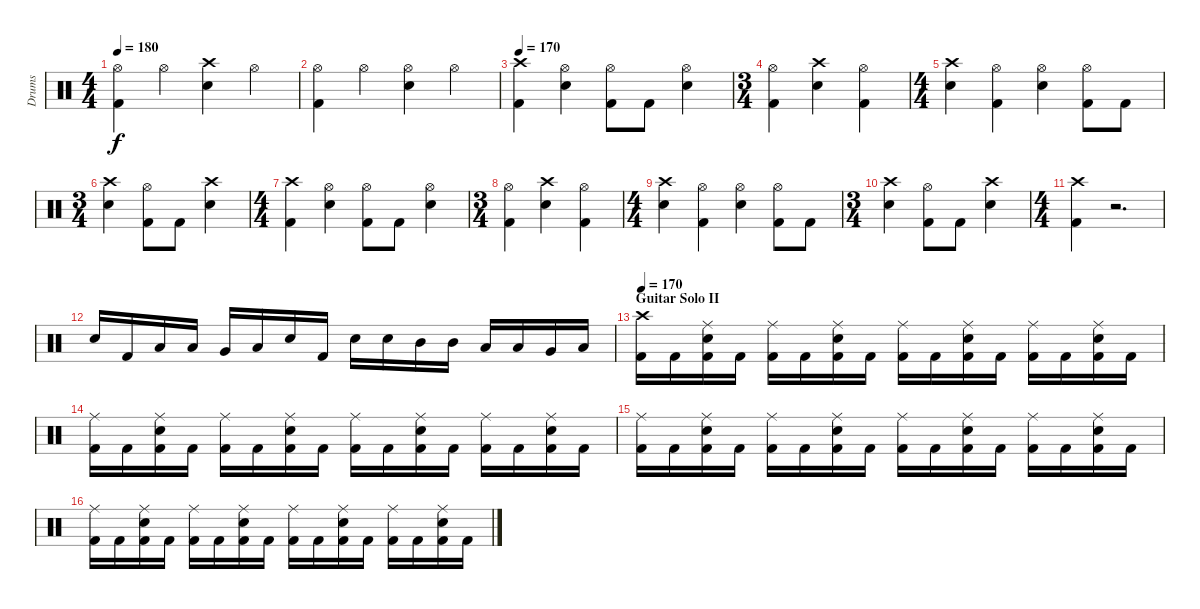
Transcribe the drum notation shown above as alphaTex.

\track ("Drums" "Drums") {instrument percussion}
\staff {score}
\articulation defaults
\ts (4 4)
\tempo 180
\clef neutral
\ks c
("Hi-Hat (open)" "Kick (hit) 2").4{dy f} "Hi-Hat (open)".4 ("Crash high (hit)" "Electric Snare (hit)").4 "Hi-Hat (open)".4 |
("Hi-Hat (open)" "Kick (hit) 2").4 "Hi-Hat (open)".4 ("Hi-Hat (open)" "Electric Snare (hit)").4 "Hi-Hat (open)".4 |
\tempo 170
("Crash high (hit)" "Kick (hit) 2").4 ("Hi-Hat (open)" "Electric Snare (hit)").4 ("Hi-Hat (open)" "Kick (hit) 2").8 "Kick (hit) 2".8 ("Hi-Hat (open)" "Electric Snare (hit)").4 |
\ts (3 4)
("Hi-Hat (open)" "Kick (hit) 2").4 ("Crash high (hit)" "Electric Snare (hit)").4 ("Hi-Hat (open)" "Kick (hit) 2").4 |
\ts (4 4)
("Crash high (hit)" "Electric Snare (hit)").4 ("Hi-Hat (open)" "Kick (hit) 2").4 ("Hi-Hat (open)" "Electric Snare (hit)").4 ("Hi-Hat (open)" "Kick (hit) 2").8 "Kick (hit) 2".8 |
\ts (3 4)
("Crash high (hit)" "Electric Snare (hit)").4 ("Hi-Hat (open)" "Kick (hit) 2").8 "Kick (hit) 2".8 ("Crash high (hit)" "Electric Snare (hit)").4 |
\ts (4 4)
("Crash high (hit)" "Kick (hit) 2").4 ("Hi-Hat (open)" "Electric Snare (hit)").4 ("Hi-Hat (open)" "Kick (hit) 2").8 "Kick (hit) 2".8 ("Hi-Hat (open)" "Electric Snare (hit)").4 |
\ts (3 4)
("Hi-Hat (open)" "Kick (hit) 2").4 ("Crash high (hit)" "Electric Snare (hit)").4 ("Hi-Hat (open)" "Kick (hit) 2").4 |
\ts (4 4)
("Crash high (hit)" "Electric Snare (hit)").4 ("Hi-Hat (open)" "Kick (hit) 2").4 ("Hi-Hat (open)" "Electric Snare (hit)").4 ("Hi-Hat (open)" "Kick (hit) 2").8 "Kick (hit) 2".8 |
\ts (3 4)
("Crash high (hit)" "Electric Snare (hit)").4 ("Hi-Hat (open)" "Kick (hit) 2").8 "Kick (hit) 2".8 ("Crash high (hit)" "Electric Snare (hit)").4 |
\ts (4 4)
("Crash high (hit)" "Kick (hit) 2").4 r.2{d} |
"Electric Snare (hit)".16 "Kick (hit) 2".16 "Low Tom (hit)".16 "Low Tom (hit)".16 "Very Low Tom (hit)".16 "Low Floor Tom (hit)".16 "Electric Snare (hit)".16 "Kick (hit) 2".16 "Electric Snare (hit)".16 "Electric Snare (hit)".16 "Mid Tom (hit)".16 "Mid Tom (hit)".16 "Low Tom (hit)".16 "Low Tom (hit)".16 "Very Low Tom (hit)".16 "Low Floor Tom (hit)".16 |
\section ("" "Guitar Solo II")
\tempo 170
("Crash high (hit)" "Kick (hit) 2").16 "Kick (hit) 2".16 ("Ride (middle)" "Electric Snare (hit)" "Kick (hit) 2").16 "Kick (hit) 2".16 ("Ride (middle)" "Kick (hit) 2").16 "Kick (hit) 2".16 ("Ride (middle)" "Electric Snare (hit)" "Kick (hit) 2").16 "Kick (hit) 2".16 ("Ride (middle)" "Kick (hit) 2").16 "Kick (hit) 2".16 ("Ride (middle)" "Electric Snare (hit)" "Kick (hit) 2").16 "Kick (hit) 2".16 ("Ride (middle)" "Kick (hit) 2").16 "Kick (hit) 2".16 ("Ride (middle)" "Electric Snare (hit)" "Kick (hit) 2").16 "Kick (hit) 2".16 |
("Ride (middle)" "Kick (hit) 2").16 "Kick (hit) 2".16 ("Ride (middle)" "Electric Snare (hit)" "Kick (hit) 2").16 "Kick (hit) 2".16 ("Ride (middle)" "Kick (hit) 2").16 "Kick (hit) 2".16 ("Ride (middle)" "Electric Snare (hit)" "Kick (hit) 2").16 "Kick (hit) 2".16 ("Ride (middle)" "Kick (hit) 2").16 "Kick (hit) 2".16 ("Ride (middle)" "Electric Snare (hit)" "Kick (hit) 2").16 "Kick (hit) 2".16 ("Ride (middle)" "Kick (hit) 2").16 "Kick (hit) 2".16 ("Ride (middle)" "Electric Snare (hit)" "Kick (hit) 2").16 "Kick (hit) 2".16 |
("Ride (middle)" "Kick (hit) 2").16 "Kick (hit) 2".16 ("Ride (middle)" "Electric Snare (hit)" "Kick (hit) 2").16 "Kick (hit) 2".16 ("Ride (middle)" "Kick (hit) 2").16 "Kick (hit) 2".16 ("Ride (middle)" "Electric Snare (hit)" "Kick (hit) 2").16 "Kick (hit) 2".16 ("Ride (middle)" "Kick (hit) 2").16 "Kick (hit) 2".16 ("Ride (middle)" "Electric Snare (hit)" "Kick (hit) 2").16 "Kick (hit) 2".16 ("Ride (middle)" "Kick (hit) 2").16 "Kick (hit) 2".16 ("Ride (middle)" "Electric Snare (hit)" "Kick (hit) 2").16 "Kick (hit) 2".16 |
("Ride (middle)" "Kick (hit) 2").16 "Kick (hit) 2".16 ("Ride (middle)" "Electric Snare (hit)" "Kick (hit) 2").16 "Kick (hit) 2".16 ("Ride (middle)" "Kick (hit) 2").16 "Kick (hit) 2".16 ("Ride (middle)" "Electric Snare (hit)" "Kick (hit) 2").16 "Kick (hit) 2".16 ("Ride (middle)" "Kick (hit) 2").16 "Kick (hit) 2".16 ("Ride (middle)" "Electric Snare (hit)" "Kick (hit) 2").16 "Kick (hit) 2".16 ("Ride (middle)" "Kick (hit) 2").16 "Kick (hit) 2".16 ("Ride (middle)" "Electric Snare (hit)" "Kick (hit) 2").16 "Kick (hit) 2".16
